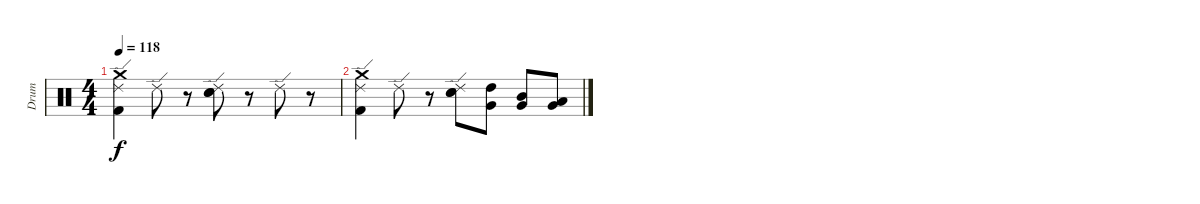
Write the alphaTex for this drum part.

\track (" Drum" " Drum") {instrument percussion}
\staff {score}
\articulation defaults
\ts (4 4)
\tempo 118
\clef neutral
\ks c
("Crash medium (hit)" "Kick (hit) 2" "Ride (edge) 2").4{dy f} "Ride (edge) 2".8{volume 1} r.8 ("Electric Snare (hit)" "Snare (hit) 2" "Ride (edge) 2").8{volume 0} r.8 "Ride (edge) 2".8 r.8 |
("Crash medium (hit)" "Kick (hit) 2" "Ride (edge) 2").4{volume 0} "Ride (edge) 2".8{volume 0} r.8 ("Electric Snare (hit)" "Snare (hit) 2" "Ride (edge) 2").8 ("Very Low Tom (hit)" "High Tom (hit)").8{volume 0} ("Mid Tom (hit)" "Very Low Tom (hit)").8 ("Low Tom (hit)" "Very Low Tom (hit)").8
